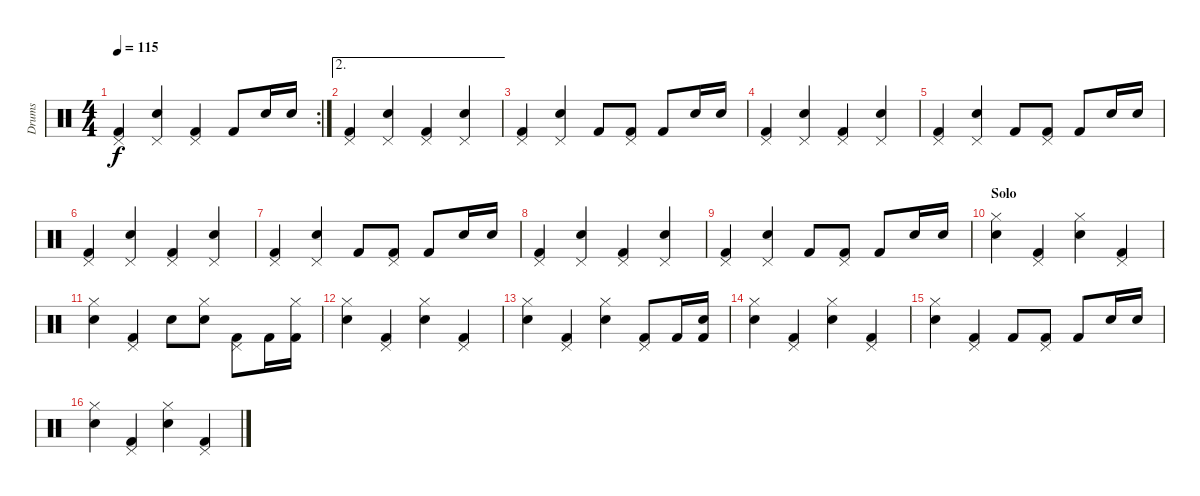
\track ("Drums" "Drums") {instrument percussion}
\staff {score}
\articulation defaults
\rc 2
\ts (4 4)
\tempo 115
\clef neutral
\ks c
("Pedal Hi-Hat (hit)" "Kick (hit) 2").4{dy f} ("Pedal Hi-Hat (hit)" "Electric Snare (hit)").4 ("Pedal Hi-Hat (hit)" "Kick (hit) 2").4 "Kick (hit) 2".8 "Snare (hit) 2".16 "Electric Snare (hit)".16 |
\ae 2
("Pedal Hi-Hat (hit)" "Kick (hit) 2").4 ("Pedal Hi-Hat (hit)" "Electric Snare (hit)").4 ("Pedal Hi-Hat (hit)" "Kick (hit) 2").4 ("Pedal Hi-Hat (hit)" "Electric Snare (hit)").4 |
("Pedal Hi-Hat (hit)" "Kick (hit) 2").4 ("Pedal Hi-Hat (hit)" "Electric Snare (hit)").4 "Kick (hit) 2".8 ("Pedal Hi-Hat (hit)" "Kick (hit) 2").8 "Kick (hit) 2".8 "Snare (hit) 2".16 "Electric Snare (hit)".16 |
("Pedal Hi-Hat (hit)" "Kick (hit) 2").4 ("Pedal Hi-Hat (hit)" "Electric Snare (hit)").4 ("Pedal Hi-Hat (hit)" "Kick (hit) 2").4 ("Pedal Hi-Hat (hit)" "Electric Snare (hit)").4 |
("Pedal Hi-Hat (hit)" "Kick (hit) 2").4 ("Pedal Hi-Hat (hit)" "Electric Snare (hit)").4 "Kick (hit) 2".8 ("Pedal Hi-Hat (hit)" "Kick (hit) 2").8 "Kick (hit) 2".8 "Snare (hit) 2".16 "Electric Snare (hit)".16 |
("Pedal Hi-Hat (hit)" "Kick (hit) 2").4 ("Pedal Hi-Hat (hit)" "Electric Snare (hit)").4 ("Pedal Hi-Hat (hit)" "Kick (hit) 2").4 ("Pedal Hi-Hat (hit)" "Electric Snare (hit)").4 |
("Pedal Hi-Hat (hit)" "Kick (hit) 2").4 ("Pedal Hi-Hat (hit)" "Electric Snare (hit)").4 "Kick (hit) 2".8 ("Pedal Hi-Hat (hit)" "Kick (hit) 2").8 "Kick (hit) 2".8 "Snare (hit) 2".16 "Electric Snare (hit)".16 |
("Pedal Hi-Hat (hit)" "Kick (hit) 2").4 ("Pedal Hi-Hat (hit)" "Electric Snare (hit)").4 ("Pedal Hi-Hat (hit)" "Kick (hit) 2").4 ("Pedal Hi-Hat (hit)" "Electric Snare (hit)").4 |
("Pedal Hi-Hat (hit)" "Kick (hit) 2").4 ("Pedal Hi-Hat (hit)" "Electric Snare (hit)").4 "Kick (hit) 2".8 ("Pedal Hi-Hat (hit)" "Kick (hit) 2").8 "Kick (hit) 2".8 "Snare (hit) 2".16 "Electric Snare (hit)".16 |
\section ("" "Solo")
("Snare (hit) 2" "Hi-Hat (closed)").4 ("Pedal Hi-Hat (hit)" "Kick (hit) 2").4 ("Snare (hit) 2" "Hi-Hat (closed)").4 ("Pedal Hi-Hat (hit)" "Kick (hit) 2").4 |
("Snare (hit) 2" "Hi-Hat (closed)").4 ("Pedal Hi-Hat (hit)" "Kick (hit) 2").4 "Snare (hit) 2".8 ("Snare (hit) 2" "Hi-Hat (closed)").8 ("Pedal Hi-Hat (hit)" "Kick (hit) 2").8 "Kick (hit) 2".16 ("Hi-Hat (closed)" "Kick (hit) 2").16 |
("Snare (hit) 2" "Hi-Hat (closed)").4 ("Pedal Hi-Hat (hit)" "Kick (hit) 2").4 ("Snare (hit) 2" "Hi-Hat (closed)").4 ("Pedal Hi-Hat (hit)" "Kick (hit) 2").4 |
("Snare (hit) 2" "Hi-Hat (closed)").4 ("Pedal Hi-Hat (hit)" "Kick (hit) 2").4 ("Snare (hit) 2" "Hi-Hat (closed)").4 ("Pedal Hi-Hat (hit)" "Kick (hit) 2").8 "Kick (hit) 2".16 ("Kick (hit) 2" "Snare (hit) 2").16 |
("Snare (hit) 2" "Hi-Hat (closed)").4 ("Pedal Hi-Hat (hit)" "Kick (hit) 2").4 ("Snare (hit) 2" "Hi-Hat (closed)").4 ("Pedal Hi-Hat (hit)" "Kick (hit) 2").4 |
("Snare (hit) 2" "Hi-Hat (closed)").4 ("Pedal Hi-Hat (hit)" "Kick (hit) 2").4 "Kick (hit) 2".8 ("Pedal Hi-Hat (hit)" "Kick (hit) 2").8 "Kick (hit) 2".8 "Snare (hit) 2".16 "Electric Snare (hit)".16 |
("Snare (hit) 2" "Hi-Hat (closed)").4 ("Pedal Hi-Hat (hit)" "Kick (hit) 2").4 ("Snare (hit) 2" "Hi-Hat (closed)").4 ("Pedal Hi-Hat (hit)" "Kick (hit) 2").4
